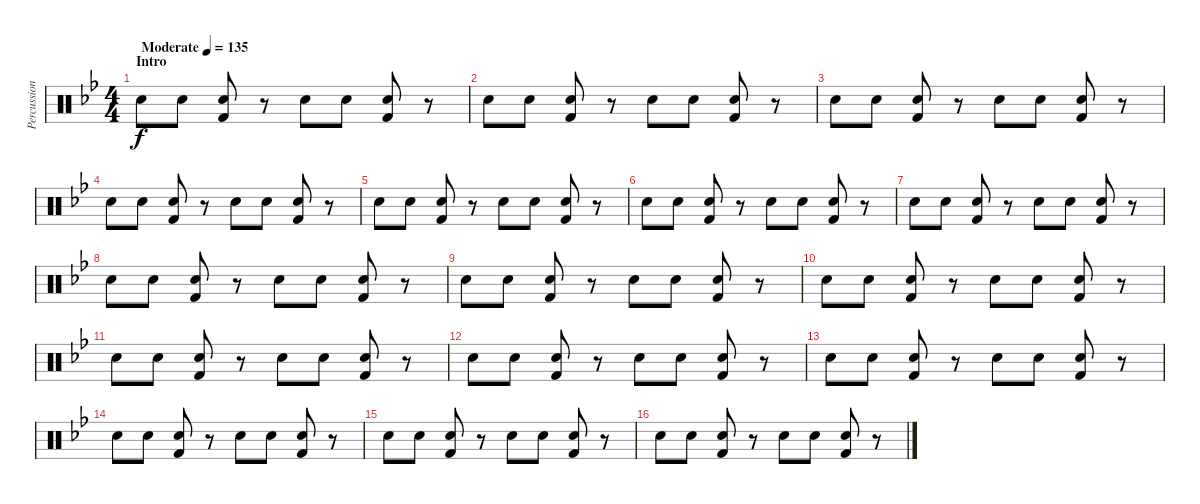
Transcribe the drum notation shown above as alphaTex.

\track ("Percussion" "Percussion") {instrument percussion}
\staff {score}
\articulation defaults
\ts (4 4)
\section ("" "Intro")
\tempo (135 "Moderate")
\clef neutral
\ks gminor "Snare (hit) 2".8{dy f} "Snare (hit) 2".8
("Snare (hit) 2" "Kick (hit) 2").8 r.8 "Snare (hit) 2".8 "Snare (hit) 2".8 ("Snare (hit) 2" "Kick (hit) 2").8 r.8 |
"Snare (hit) 2".8 "Snare (hit) 2".8 ("Snare (hit) 2" "Kick (hit) 2").8 r.8 "Snare (hit) 2".8 "Snare (hit) 2".8 ("Snare (hit) 2" "Kick (hit) 2").8 r.8 |
"Snare (hit) 2".8 "Snare (hit) 2".8 ("Snare (hit) 2" "Kick (hit) 2").8 r.8 "Snare (hit) 2".8 "Snare (hit) 2".8 ("Snare (hit) 2" "Kick (hit) 2").8 r.8 |
"Snare (hit) 2".8 "Snare (hit) 2".8 ("Snare (hit) 2" "Kick (hit) 2").8 r.8 "Snare (hit) 2".8 "Snare (hit) 2".8 ("Snare (hit) 2" "Kick (hit) 2").8 r.8 |
"Snare (hit) 2".8 "Snare (hit) 2".8 ("Snare (hit) 2" "Kick (hit) 2").8 r.8 "Snare (hit) 2".8 "Snare (hit) 2".8 ("Snare (hit) 2" "Kick (hit) 2").8 r.8 |
"Snare (hit) 2".8 "Snare (hit) 2".8 ("Snare (hit) 2" "Kick (hit) 2").8 r.8 "Snare (hit) 2".8 "Snare (hit) 2".8 ("Snare (hit) 2" "Kick (hit) 2").8 r.8 |
"Snare (hit) 2".8 "Snare (hit) 2".8 ("Snare (hit) 2" "Kick (hit) 2").8 r.8 "Snare (hit) 2".8 "Snare (hit) 2".8 ("Snare (hit) 2" "Kick (hit) 2").8 r.8 |
"Snare (hit) 2".8 "Snare (hit) 2".8 ("Snare (hit) 2" "Kick (hit) 2").8 r.8 "Snare (hit) 2".8 "Snare (hit) 2".8 ("Snare (hit) 2" "Kick (hit) 2").8 r.8 |
"Snare (hit) 2".8 "Snare (hit) 2".8 ("Snare (hit) 2" "Kick (hit) 2").8 r.8 "Snare (hit) 2".8 "Snare (hit) 2".8 ("Snare (hit) 2" "Kick (hit) 2").8 r.8 |
"Snare (hit) 2".8 "Snare (hit) 2".8 ("Snare (hit) 2" "Kick (hit) 2").8 r.8 "Snare (hit) 2".8 "Snare (hit) 2".8 ("Snare (hit) 2" "Kick (hit) 2").8 r.8 |
"Snare (hit) 2".8 "Snare (hit) 2".8 ("Snare (hit) 2" "Kick (hit) 2").8 r.8 "Snare (hit) 2".8 "Snare (hit) 2".8 ("Snare (hit) 2" "Kick (hit) 2").8 r.8 |
"Snare (hit) 2".8 "Snare (hit) 2".8 ("Snare (hit) 2" "Kick (hit) 2").8 r.8 "Snare (hit) 2".8 "Snare (hit) 2".8 ("Snare (hit) 2" "Kick (hit) 2").8 r.8 |
"Snare (hit) 2".8 "Snare (hit) 2".8 ("Snare (hit) 2" "Kick (hit) 2").8 r.8 "Snare (hit) 2".8 "Snare (hit) 2".8 ("Snare (hit) 2" "Kick (hit) 2").8 r.8 |
"Snare (hit) 2".8 "Snare (hit) 2".8 ("Snare (hit) 2" "Kick (hit) 2").8 r.8 "Snare (hit) 2".8 "Snare (hit) 2".8 ("Snare (hit) 2" "Kick (hit) 2").8 r.8 |
"Snare (hit) 2".8 "Snare (hit) 2".8 ("Snare (hit) 2" "Kick (hit) 2").8 r.8 "Snare (hit) 2".8 "Snare (hit) 2".8 ("Snare (hit) 2" "Kick (hit) 2").8 r.8 |
"Snare (hit) 2".8 "Snare (hit) 2".8 ("Snare (hit) 2" "Kick (hit) 2").8 r.8 "Snare (hit) 2".8 "Snare (hit) 2".8 ("Snare (hit) 2" "Kick (hit) 2").8 r.8
